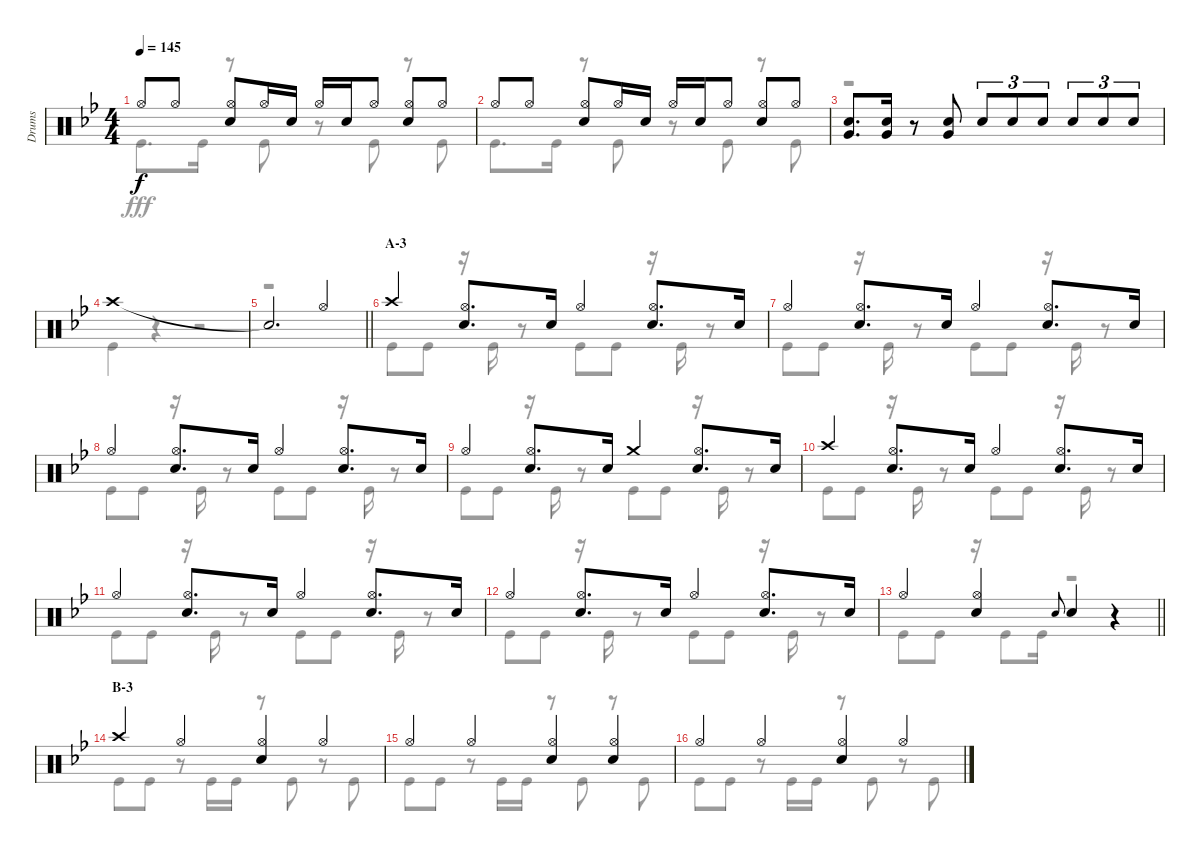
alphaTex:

\track ("Drums" "Drums") {instrument percussion}
\staff {score}
\articulation defaults
\voice
\ts (4 4)
\tempo 145
\clef neutral
\ks bb "Hi-Hat (open)".8{dy f} "Hi-Hat (open)".8
("Hi-Hat (open)" "Snare (hit) 2").8 "Hi-Hat (open)".16 "Snare (hit) 2".16 "Hi-Hat (open)".16 "Snare (hit) 2".16 "Hi-Hat (open)".8 ("Hi-Hat (open)" "Snare (hit) 2").8 "Hi-Hat (open)".8 |
"Hi-Hat (open)".8 "Hi-Hat (open)".8 ("Hi-Hat (open)" "Snare (hit) 2").8 "Hi-Hat (open)".16 "Snare (hit) 2".16 "Hi-Hat (open)".16 "Snare (hit) 2".16 "Hi-Hat (open)".8 ("Hi-Hat (open)" "Snare (hit) 2").8 "Hi-Hat (open)".8 |
("Snare (hit) 2" "Very Low Tom (hit)").8{d} ("Snare (hit) 2" "Very Low Tom (hit)").16 r.8 ("Snare (hit) 2" "Very Low Tom (hit)").8 "Snare (hit) 2".8{tu (3 2)} "Snare (hit) 2".8{tu (3 2)} "Snare (hit) 2".8{tu (3 2)} "Snare (hit) 2".8{tu (3 2)} "Snare (hit) 2".8{tu (3 2)} "Snare (hit) 2".8{tu (3 2)} |
"Crash high (hit)".1 |
\barLineRight lightlight "Snare (hit)"{t}.2{d} "Hi-Hat (open)".4
|
\section ("" "A-3")
"Crash high (hit)".4 ("Hi-Hat (open)" "Snare (hit) 2").8{d} "Snare (hit) 2".16 "Hi-Hat (open)".4 ("Hi-Hat (open)" "Snare (hit) 2").8{d} "Snare (hit) 2".16 |
"Hi-Hat (open)".4 ("Hi-Hat (open)" "Snare (hit) 2").8{d} "Snare (hit) 2".16 "Hi-Hat (open)".4 ("Hi-Hat (open)" "Snare (hit) 2").8{d} "Snare (hit) 2".16 |
"Hi-Hat (open)".4 ("Hi-Hat (open)" "Snare (hit) 2").8{d} "Snare (hit) 2".16 "Hi-Hat (open)".4 ("Hi-Hat (open)" "Snare (hit) 2").8{d} "Snare (hit) 2".16 |
"Hi-Hat (open)".4 ("Hi-Hat (open)" "Snare (hit) 2").8{d} "Snare (hit) 2".16 "Crash medium (hit)".4 ("Hi-Hat (open)" "Snare (hit) 2").8{d} "Snare (hit) 2".16 |
"Crash high (hit)".4 ("Hi-Hat (open)" "Snare (hit) 2").8{d} "Snare (hit) 2".16 "Hi-Hat (open)".4 ("Hi-Hat (open)" "Snare (hit) 2").8{d} "Snare (hit) 2".16 |
"Hi-Hat (open)".4 ("Hi-Hat (open)" "Snare (hit) 2").8{d} "Snare (hit) 2".16 "Hi-Hat (open)".4 ("Hi-Hat (open)" "Snare (hit) 2").8{d} "Snare (hit) 2".16 |
"Hi-Hat (open)".4 ("Hi-Hat (open)" "Snare (hit) 2").8{d} "Snare (hit) 2".16 "Hi-Hat (open)".4 ("Hi-Hat (open)" "Snare (hit) 2").8{d} "Snare (hit) 2".16 |
\barLineRight lightlight "Hi-Hat (open)".4
("Hi-Hat (open)" "Snare (hit) 2").4 "Snare (hit) 2".8{gr onbeat} "Snare (hit) 2".4 r.4 |
\section ("" "B-3")
"Crash high (hit)".4 "Hi-Hat (open)".4 ("Hi-Hat (open)" "Snare (hit) 2").4 "Hi-Hat (open)".4 |
"Hi-Hat (open)".4 "Hi-Hat (open)".4 ("Hi-Hat (open)" "Snare (hit) 2").4 ("Hi-Hat (open)" "Snare (hit) 2").4 |
"Hi-Hat (open)".4 "Hi-Hat (open)".4 ("Hi-Hat (open)" "Snare (hit) 2").4 "Hi-Hat (open)".4
\voice
\clef neutral
\ottava regular
\simile none
\ks bb "Kick (hit)".8{d dy fff} "Kick (hit)".16
r.8 "Kick (hit)".8 r.8 "Kick (hit)".8 r.8 "Kick (hit)".8 |
"Kick (hit)".8{d} "Kick (hit)".16 r.8 "Kick (hit)".8 r.8 "Kick (hit)".8 r.8 "Kick (hit)".8 |
r.1 |
"Kick (hit)".4 r.4 r.2 |
\barLineRight lightlight
r.1 |
"Kick (hit)".8 "Kick (hit)".8 r.16 "Kick (hit)".16 r.8 "Kick (hit)".8 "Kick (hit)".8 r.16 "Kick (hit)".16 r.8 |
"Kick (hit)".8 "Kick (hit)".8 r.16 "Kick (hit)".16 r.8 "Kick (hit)".8 "Kick (hit)".8 r.16 "Kick (hit)".16 r.8 |
"Kick (hit)".8 "Kick (hit)".8 r.16 "Kick (hit)".16 r.8 "Kick (hit)".8 "Kick (hit)".8 r.16 "Kick (hit)".16 r.8 |
"Kick (hit)".8 "Kick (hit)".8 r.16 "Kick (hit)".16 r.8 "Kick (hit)".8 "Kick (hit)".8 r.16 "Kick (hit)".16 r.8 |
"Kick (hit)".8 "Kick (hit)".8 r.16 "Kick (hit)".16 r.8 "Kick (hit)".8 "Kick (hit)".8 r.16 "Kick (hit)".16 r.8 |
"Kick (hit)".8 "Kick (hit)".8 r.16 "Kick (hit)".16 r.8 "Kick (hit)".8 "Kick (hit)".8 r.16 "Kick (hit)".16 r.8 |
"Kick (hit)".8 "Kick (hit)".8 r.16 "Kick (hit)".16 r.8 "Kick (hit)".8 "Kick (hit)".8 r.16 "Kick (hit)".16 r.8 |
\barLineRight lightlight "Kick (hit)".8 "Kick (hit)".8
r.16 "Kick (hit)".8 "Kick (hit)".16 r.2 |
"Kick (hit)".8 "Kick (hit)".8 r.8 "Kick (hit)".16 "Kick (hit)".16 r.8 "Kick (hit)".8 r.8 "Kick (hit)".8 |
"Kick (hit)".8 "Kick (hit)".8 r.8 "Kick (hit)".16 "Kick (hit)".16 r.8 "Kick (hit)".8 r.8 "Kick (hit)".8 |
"Kick (hit)".8 "Kick (hit)".8 r.8 "Kick (hit)".16 "Kick (hit)".16 r.8 "Kick (hit)".8 r.8 "Kick (hit)".8
